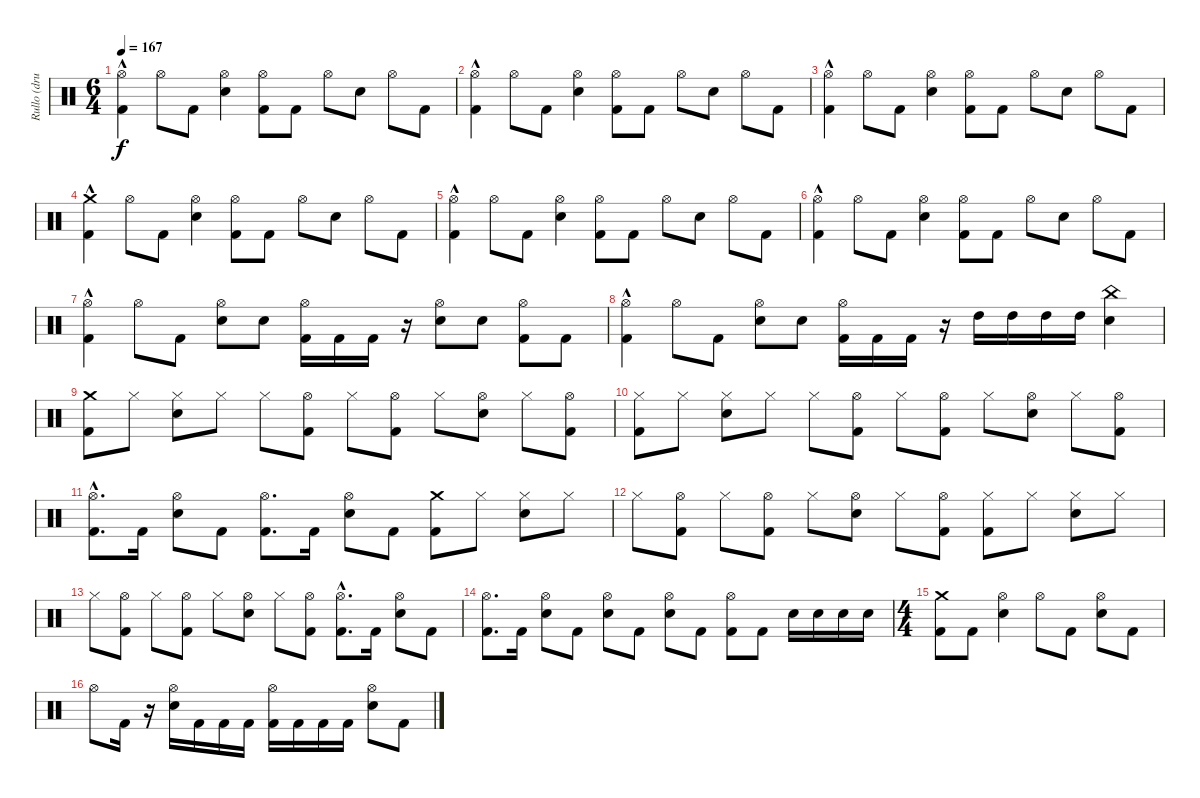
\track ("Rullo (drums)" "Rullo (dru") {instrument percussion}
\staff {score}
\articulation defaults
\ts (6 4)
\tempo 167
\clef neutral
\ks c
("Hi-Hat (open)" "Kick (hit) 2"{hac}).4{dy f} "Hi-Hat (open)".8 "Kick (hit) 2".8 ("Hi-Hat (open)" "Electric Snare (hit)").4 ("Hi-Hat (open)" "Kick (hit) 2").8 "Kick (hit) 2".8 "Hi-Hat (open)".8 "Electric Snare (hit)".8 "Hi-Hat (open)".8 "Kick (hit) 2".8 |
("Hi-Hat (open)" "Kick (hit) 2"{hac}).4 "Hi-Hat (open)".8 "Kick (hit) 2".8 ("Hi-Hat (open)" "Electric Snare (hit)").4 ("Hi-Hat (open)" "Kick (hit) 2").8 "Kick (hit) 2".8 "Hi-Hat (open)".8 "Electric Snare (hit)".8 "Hi-Hat (open)".8 "Kick (hit) 2".8 |
("Hi-Hat (open)" "Kick (hit) 2"{hac}).4 "Hi-Hat (open)".8 "Kick (hit) 2".8 ("Hi-Hat (open)" "Electric Snare (hit)").4 ("Hi-Hat (open)" "Kick (hit) 2").8 "Kick (hit) 2".8 "Hi-Hat (open)".8 "Electric Snare (hit)".8 "Hi-Hat (open)".8 "Kick (hit) 2".8 |
("Crash medium (hit)" "Kick (hit) 2"{hac}).4 "Hi-Hat (open)".8 "Kick (hit) 2".8 ("Hi-Hat (open)" "Electric Snare (hit)").4 ("Hi-Hat (open)" "Kick (hit) 2").8 "Kick (hit) 2".8 "Hi-Hat (open)".8 "Electric Snare (hit)".8 "Hi-Hat (open)".8 "Kick (hit) 2".8 |
("Hi-Hat (open)" "Kick (hit) 2"{hac}).4 "Hi-Hat (open)".8 "Kick (hit) 2".8 ("Hi-Hat (open)" "Electric Snare (hit)").4 ("Hi-Hat (open)" "Kick (hit) 2").8 "Kick (hit) 2".8 "Hi-Hat (open)".8 "Electric Snare (hit)".8 "Hi-Hat (open)".8 "Kick (hit) 2".8 |
("Hi-Hat (open)" "Kick (hit) 2"{hac}).4 "Hi-Hat (open)".8 "Kick (hit) 2".8 ("Hi-Hat (open)" "Electric Snare (hit)").4 ("Hi-Hat (open)" "Kick (hit) 2").8 "Kick (hit) 2".8 "Hi-Hat (open)".8 "Electric Snare (hit)".8 "Hi-Hat (open)".8 "Kick (hit) 2".8 |
("Hi-Hat (open)" "Kick (hit) 2"{hac}).4 "Hi-Hat (open)".8 "Kick (hit) 2".8 ("Hi-Hat (open)" "Electric Snare (hit)").8 "Electric Snare (hit)".8 ("Kick (hit) 2" "Hi-Hat (open)").16 "Kick (hit) 2".16 "Kick (hit) 2".16 r.16 ("Electric Snare (hit)" "Hi-Hat (open)").8 "Electric Snare (hit)".8 ("Kick (hit) 2" "Hi-Hat (open)").8 "Kick (hit) 2".8 |
("Hi-Hat (open)" "Kick (hit) 2"{hac}).4 "Hi-Hat (open)".8 "Kick (hit) 2".8 ("Hi-Hat (open)" "Electric Snare (hit)").8 "Electric Snare (hit)".8 ("Kick (hit) 2" "Hi-Hat (open)").16 "Kick (hit) 2".16 "Kick (hit) 2".16 r.16 "High Tom (hit)".16 "High Tom (hit)".16 "High Tom (hit)".16 "High Tom (hit)".16 ("China (hit)" "Electric Snare (hit)").4 |
("Crash medium (hit)" "Kick (hit) 2").8 "Hi-Hat (closed)".8 ("Hi-Hat (closed)" "Electric Snare (hit)").8 "Hi-Hat (closed)".8 "Hi-Hat (closed)".8 ("Hi-Hat (open)" "Kick (hit) 2").8 "Hi-Hat (closed)".8 ("Hi-Hat (open)" "Kick (hit) 2").8 "Hi-Hat (closed)".8 ("Hi-Hat (open)" "Electric Snare (hit)").8 "Hi-Hat (closed)".8 ("Hi-Hat (open)" "Kick (hit) 2").8 |
("Hi-Hat (closed)" "Kick (hit) 2").8 "Hi-Hat (closed)".8 ("Hi-Hat (closed)" "Electric Snare (hit)").8 "Hi-Hat (closed)".8 "Hi-Hat (closed)".8 ("Hi-Hat (open)" "Kick (hit) 2").8 "Hi-Hat (closed)".8 ("Hi-Hat (open)" "Kick (hit) 2").8 "Hi-Hat (closed)".8 ("Hi-Hat (open)" "Electric Snare (hit)").8 "Hi-Hat (closed)".8 ("Hi-Hat (open)" "Kick (hit) 2").8 |
("Hi-Hat (open)" "Kick (hit) 2"{hac}).8{d} "Kick (hit) 2".16 ("Hi-Hat (open)" "Electric Snare (hit)").8 "Kick (hit) 2".8 ("Hi-Hat (open)" "Kick (hit) 2").8{d} "Kick (hit) 2".16 ("Hi-Hat (open)" "Electric Snare (hit)").8 "Kick (hit) 2".8 ("Crash medium (hit)" "Kick (hit) 2").8 "Hi-Hat (closed)".8 ("Hi-Hat (closed)" "Electric Snare (hit)").8 "Hi-Hat (closed)".8 |
"Hi-Hat (closed)".8 ("Hi-Hat (open)" "Kick (hit) 2").8 "Hi-Hat (closed)".8 ("Hi-Hat (open)" "Kick (hit) 2").8 "Hi-Hat (closed)".8 ("Hi-Hat (open)" "Electric Snare (hit)").8 "Hi-Hat (closed)".8 ("Hi-Hat (open)" "Kick (hit) 2").8 ("Hi-Hat (closed)" "Kick (hit) 2").8 "Hi-Hat (closed)".8 ("Hi-Hat (closed)" "Electric Snare (hit)").8 "Hi-Hat (closed)".8 |
"Hi-Hat (closed)".8 ("Hi-Hat (open)" "Kick (hit) 2").8 "Hi-Hat (closed)".8 ("Hi-Hat (open)" "Kick (hit) 2").8 "Hi-Hat (closed)".8 ("Hi-Hat (open)" "Electric Snare (hit)").8 "Hi-Hat (closed)".8 ("Hi-Hat (open)" "Kick (hit) 2").8 ("Hi-Hat (open)" "Kick (hit) 2"{hac}).8{d} "Kick (hit) 2".16 ("Hi-Hat (open)" "Electric Snare (hit)").8 "Kick (hit) 2".8 |
("Hi-Hat (open)" "Kick (hit) 2").8{d} "Kick (hit) 2".16 ("Hi-Hat (open)" "Electric Snare (hit)").8 "Kick (hit) 2".8 ("Hi-Hat (open)" "Electric Snare (hit)").8 "Kick (hit) 2".8 ("Hi-Hat (open)" "Electric Snare (hit)").8 "Kick (hit) 2".8 ("Kick (hit) 2" "Hi-Hat (open)").8 "Kick (hit) 2".8 "Electric Snare (hit)".16 "Electric Snare (hit)".16 "Electric Snare (hit)".16 "Electric Snare (hit)".16 |
\ts (4 4)
("Crash medium (hit)" "Kick (hit) 2").8 "Kick (hit) 2".8 ("Hi-Hat (open)" "Electric Snare (hit)").4 "Hi-Hat (open)".8 "Kick (hit) 2".8 ("Hi-Hat (open)" "Electric Snare (hit)").8 "Kick (hit) 2".8 |
"Hi-Hat (open)".8 "Kick (hit) 2".16 r.16 ("Hi-Hat (open)" "Electric Snare (hit)").16 "Kick (hit) 2".16 "Kick (hit) 2".16 "Kick (hit) 2".16 ("Hi-Hat (open)" "Kick (hit) 2").16 "Kick (hit) 2".16 "Kick (hit) 2".16 "Kick (hit) 2".16 ("Hi-Hat (open)" "Electric Snare (hit)").8 "Kick (hit) 2".8
